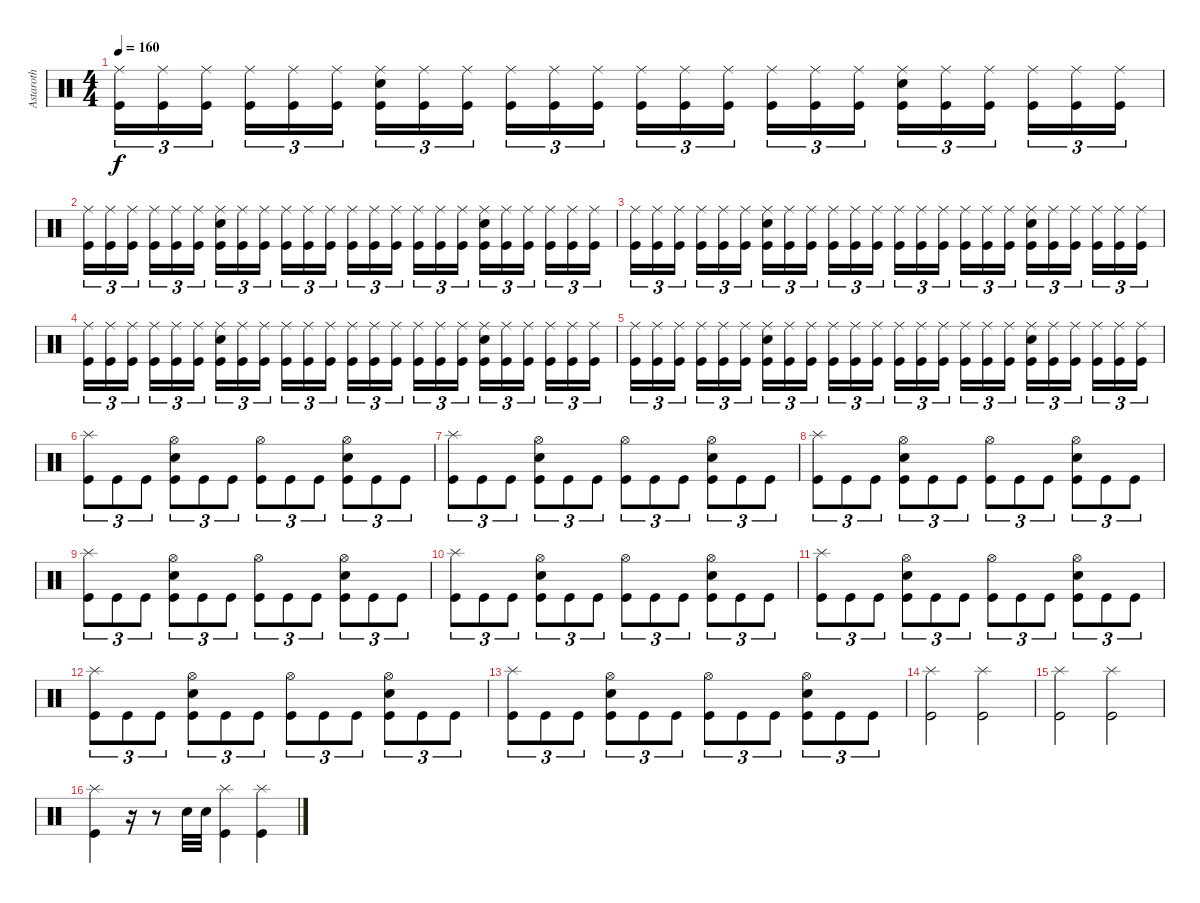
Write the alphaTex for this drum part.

\track ("Astaroth" "Astaroth") {instrument percussion}
\staff {score}
\articulation defaults
\ts (4 4)
\tempo 160
\clef neutral
\ks c
("Ride (middle)" "Kick (hit)").16{tu (3 2) dy f} ("Ride (middle)" "Kick (hit)").16{tu (3 2)} ("Ride (middle)" "Kick (hit)").16{tu (3 2) beam splitsecondary} ("Ride (middle)" "Kick (hit)").16{tu (3 2)} ("Ride (middle)" "Kick (hit)").16{tu (3 2)} ("Ride (middle)" "Kick (hit)").16{tu (3 2)} ("Ride (middle)" "Kick (hit)" "Electric Snare (hit)").16{tu (3 2)} ("Ride (middle)" "Kick (hit)").16{tu (3 2)} ("Ride (middle)" "Kick (hit)").16{tu (3 2) beam splitsecondary} ("Ride (middle)" "Kick (hit)").16{tu (3 2)} ("Ride (middle)" "Kick (hit)").16{tu (3 2)} ("Ride (middle)" "Kick (hit)").16{tu (3 2)} ("Ride (middle)" "Kick (hit)").16{tu (3 2)} ("Ride (middle)" "Kick (hit)").16{tu (3 2)} ("Ride (middle)" "Kick (hit)").16{tu (3 2) beam splitsecondary} ("Ride (middle)" "Kick (hit)").16{tu (3 2)} ("Ride (middle)" "Kick (hit)").16{tu (3 2)} ("Ride (middle)" "Kick (hit)").16{tu (3 2)} ("Ride (middle)" "Kick (hit)" "Electric Snare (hit)").16{tu (3 2)} ("Ride (middle)" "Kick (hit)").16{tu (3 2)} ("Ride (middle)" "Kick (hit)").16{tu (3 2) beam splitsecondary} ("Ride (middle)" "Kick (hit)").16{tu (3 2)} ("Ride (middle)" "Kick (hit)").16{tu (3 2)} ("Ride (middle)" "Kick (hit)").16{tu (3 2)} |
("Ride (middle)" "Kick (hit)").16{tu (3 2)} ("Ride (middle)" "Kick (hit)").16{tu (3 2)} ("Ride (middle)" "Kick (hit)").16{tu (3 2) beam splitsecondary} ("Ride (middle)" "Kick (hit)").16{tu (3 2)} ("Ride (middle)" "Kick (hit)").16{tu (3 2)} ("Ride (middle)" "Kick (hit)").16{tu (3 2)} ("Ride (middle)" "Kick (hit)" "Electric Snare (hit)").16{tu (3 2)} ("Ride (middle)" "Kick (hit)").16{tu (3 2)} ("Ride (middle)" "Kick (hit)").16{tu (3 2) beam splitsecondary} ("Ride (middle)" "Kick (hit)").16{tu (3 2)} ("Ride (middle)" "Kick (hit)").16{tu (3 2)} ("Ride (middle)" "Kick (hit)").16{tu (3 2)} ("Ride (middle)" "Kick (hit)").16{tu (3 2)} ("Ride (middle)" "Kick (hit)").16{tu (3 2)} ("Ride (middle)" "Kick (hit)").16{tu (3 2) beam splitsecondary} ("Ride (middle)" "Kick (hit)").16{tu (3 2)} ("Ride (middle)" "Kick (hit)").16{tu (3 2)} ("Ride (middle)" "Kick (hit)").16{tu (3 2)} ("Ride (middle)" "Kick (hit)" "Electric Snare (hit)").16{tu (3 2)} ("Ride (middle)" "Kick (hit)").16{tu (3 2)} ("Ride (middle)" "Kick (hit)").16{tu (3 2) beam splitsecondary} ("Ride (middle)" "Kick (hit)").16{tu (3 2)} ("Ride (middle)" "Kick (hit)").16{tu (3 2)} ("Ride (middle)" "Kick (hit)").16{tu (3 2)} |
("Ride (middle)" "Kick (hit)").16{tu (3 2)} ("Ride (middle)" "Kick (hit)").16{tu (3 2)} ("Ride (middle)" "Kick (hit)").16{tu (3 2) beam splitsecondary} ("Ride (middle)" "Kick (hit)").16{tu (3 2)} ("Ride (middle)" "Kick (hit)").16{tu (3 2)} ("Ride (middle)" "Kick (hit)").16{tu (3 2)} ("Ride (middle)" "Kick (hit)" "Electric Snare (hit)").16{tu (3 2)} ("Ride (middle)" "Kick (hit)").16{tu (3 2)} ("Ride (middle)" "Kick (hit)").16{tu (3 2) beam splitsecondary} ("Ride (middle)" "Kick (hit)").16{tu (3 2)} ("Ride (middle)" "Kick (hit)").16{tu (3 2)} ("Ride (middle)" "Kick (hit)").16{tu (3 2)} ("Ride (middle)" "Kick (hit)").16{tu (3 2)} ("Ride (middle)" "Kick (hit)").16{tu (3 2)} ("Ride (middle)" "Kick (hit)").16{tu (3 2) beam splitsecondary} ("Ride (middle)" "Kick (hit)").16{tu (3 2)} ("Ride (middle)" "Kick (hit)").16{tu (3 2)} ("Ride (middle)" "Kick (hit)").16{tu (3 2)} ("Ride (middle)" "Kick (hit)" "Electric Snare (hit)").16{tu (3 2)} ("Ride (middle)" "Kick (hit)").16{tu (3 2)} ("Ride (middle)" "Kick (hit)").16{tu (3 2) beam splitsecondary} ("Ride (middle)" "Kick (hit)").16{tu (3 2)} ("Ride (middle)" "Kick (hit)").16{tu (3 2)} ("Ride (middle)" "Kick (hit)").16{tu (3 2)} |
("Ride (middle)" "Kick (hit)").16{tu (3 2)} ("Ride (middle)" "Kick (hit)").16{tu (3 2)} ("Ride (middle)" "Kick (hit)").16{tu (3 2) beam splitsecondary} ("Ride (middle)" "Kick (hit)").16{tu (3 2)} ("Ride (middle)" "Kick (hit)").16{tu (3 2)} ("Ride (middle)" "Kick (hit)").16{tu (3 2)} ("Ride (middle)" "Kick (hit)" "Electric Snare (hit)").16{tu (3 2)} ("Ride (middle)" "Kick (hit)").16{tu (3 2)} ("Ride (middle)" "Kick (hit)").16{tu (3 2) beam splitsecondary} ("Ride (middle)" "Kick (hit)").16{tu (3 2)} ("Ride (middle)" "Kick (hit)").16{tu (3 2)} ("Ride (middle)" "Kick (hit)").16{tu (3 2)} ("Ride (middle)" "Kick (hit)").16{tu (3 2)} ("Ride (middle)" "Kick (hit)").16{tu (3 2)} ("Ride (middle)" "Kick (hit)").16{tu (3 2) beam splitsecondary} ("Ride (middle)" "Kick (hit)").16{tu (3 2)} ("Ride (middle)" "Kick (hit)").16{tu (3 2)} ("Ride (middle)" "Kick (hit)").16{tu (3 2)} ("Ride (middle)" "Kick (hit)" "Electric Snare (hit)").16{tu (3 2)} ("Ride (middle)" "Kick (hit)").16{tu (3 2)} ("Ride (middle)" "Kick (hit)").16{tu (3 2) beam splitsecondary} ("Ride (middle)" "Kick (hit)").16{tu (3 2)} ("Ride (middle)" "Kick (hit)").16{tu (3 2)} ("Ride (middle)" "Kick (hit)").16{tu (3 2)} |
("Ride (middle)" "Kick (hit)").16{tu (3 2)} ("Ride (middle)" "Kick (hit)").16{tu (3 2)} ("Ride (middle)" "Kick (hit)").16{tu (3 2) beam splitsecondary} ("Ride (middle)" "Kick (hit)").16{tu (3 2)} ("Ride (middle)" "Kick (hit)").16{tu (3 2)} ("Ride (middle)" "Kick (hit)").16{tu (3 2)} ("Ride (middle)" "Kick (hit)" "Electric Snare (hit)").16{tu (3 2)} ("Ride (middle)" "Kick (hit)").16{tu (3 2)} ("Ride (middle)" "Kick (hit)").16{tu (3 2) beam splitsecondary} ("Ride (middle)" "Kick (hit)").16{tu (3 2)} ("Ride (middle)" "Kick (hit)").16{tu (3 2)} ("Ride (middle)" "Kick (hit)").16{tu (3 2)} ("Ride (middle)" "Kick (hit)").16{tu (3 2)} ("Ride (middle)" "Kick (hit)").16{tu (3 2)} ("Ride (middle)" "Kick (hit)").16{tu (3 2) beam splitsecondary} ("Ride (middle)" "Kick (hit)").16{tu (3 2)} ("Ride (middle)" "Kick (hit)").16{tu (3 2)} ("Ride (middle)" "Kick (hit)").16{tu (3 2)} ("Ride (middle)" "Kick (hit)" "Electric Snare (hit)").16{tu (3 2)} ("Ride (middle)" "Kick (hit)").16{tu (3 2)} ("Ride (middle)" "Kick (hit)").16{tu (3 2) beam splitsecondary} ("Ride (middle)" "Kick (hit)").16{tu (3 2)} ("Ride (middle)" "Kick (hit)").16{tu (3 2)} ("Ride (middle)" "Kick (hit)").16{tu (3 2)} |
("Kick (hit)" "Splash (hit)").8{tu (3 2) volume 15} "Kick (hit)".8{tu (3 2)} "Kick (hit)".8{tu (3 2)} ("Hi-Hat (open)" "Kick (hit)" "Electric Snare (hit)").8{tu (3 2)} "Kick (hit)".8{tu (3 2)} "Kick (hit)".8{tu (3 2)} ("Hi-Hat (open)" "Kick (hit)").8{tu (3 2)} "Kick (hit)".8{tu (3 2)} "Kick (hit)".8{tu (3 2)} ("Hi-Hat (open)" "Kick (hit)" "Electric Snare (hit)").8{tu (3 2)} "Kick (hit)".8{tu (3 2)} "Kick (hit)".8{tu (3 2)} |
("Kick (hit)" "Splash (hit)").8{tu (3 2)} "Kick (hit)".8{tu (3 2)} "Kick (hit)".8{tu (3 2)} ("Hi-Hat (open)" "Kick (hit)" "Electric Snare (hit)").8{tu (3 2)} "Kick (hit)".8{tu (3 2)} "Kick (hit)".8{tu (3 2)} ("Hi-Hat (open)" "Kick (hit)").8{tu (3 2)} "Kick (hit)".8{tu (3 2)} "Kick (hit)".8{tu (3 2)} ("Hi-Hat (open)" "Kick (hit)" "Electric Snare (hit)").8{tu (3 2)} "Kick (hit)".8{tu (3 2)} "Kick (hit)".8{tu (3 2)} |
("Kick (hit)" "Splash (hit)").8{tu (3 2)} "Kick (hit)".8{tu (3 2)} "Kick (hit)".8{tu (3 2)} ("Hi-Hat (open)" "Kick (hit)" "Electric Snare (hit)").8{tu (3 2)} "Kick (hit)".8{tu (3 2)} "Kick (hit)".8{tu (3 2)} ("Hi-Hat (open)" "Kick (hit)").8{tu (3 2)} "Kick (hit)".8{tu (3 2)} "Kick (hit)".8{tu (3 2)} ("Hi-Hat (open)" "Kick (hit)" "Electric Snare (hit)").8{tu (3 2)} "Kick (hit)".8{tu (3 2)} "Kick (hit)".8{tu (3 2)} |
("Kick (hit)" "Splash (hit)").8{tu (3 2)} "Kick (hit)".8{tu (3 2)} "Kick (hit)".8{tu (3 2)} ("Hi-Hat (open)" "Kick (hit)" "Electric Snare (hit)").8{tu (3 2)} "Kick (hit)".8{tu (3 2)} "Kick (hit)".8{tu (3 2)} ("Hi-Hat (open)" "Kick (hit)").8{tu (3 2)} "Kick (hit)".8{tu (3 2)} "Kick (hit)".8{tu (3 2)} ("Hi-Hat (open)" "Kick (hit)" "Electric Snare (hit)").8{tu (3 2)} "Kick (hit)".8{tu (3 2)} "Kick (hit)".8{tu (3 2)} |
("Kick (hit)" "Splash (hit)").8{tu (3 2)} "Kick (hit)".8{tu (3 2)} "Kick (hit)".8{tu (3 2)} ("Hi-Hat (open)" "Kick (hit)" "Electric Snare (hit)").8{tu (3 2)} "Kick (hit)".8{tu (3 2)} "Kick (hit)".8{tu (3 2)} ("Hi-Hat (open)" "Kick (hit)").8{tu (3 2)} "Kick (hit)".8{tu (3 2)} "Kick (hit)".8{tu (3 2)} ("Hi-Hat (open)" "Kick (hit)" "Electric Snare (hit)").8{tu (3 2)} "Kick (hit)".8{tu (3 2)} "Kick (hit)".8{tu (3 2)} |
("Kick (hit)" "Splash (hit)").8{tu (3 2)} "Kick (hit)".8{tu (3 2)} "Kick (hit)".8{tu (3 2)} ("Hi-Hat (open)" "Kick (hit)" "Electric Snare (hit)").8{tu (3 2)} "Kick (hit)".8{tu (3 2)} "Kick (hit)".8{tu (3 2)} ("Hi-Hat (open)" "Kick (hit)").8{tu (3 2)} "Kick (hit)".8{tu (3 2)} "Kick (hit)".8{tu (3 2)} ("Hi-Hat (open)" "Kick (hit)" "Electric Snare (hit)").8{tu (3 2)} "Kick (hit)".8{tu (3 2)} "Kick (hit)".8{tu (3 2)} |
("Kick (hit)" "Splash (hit)").8{tu (3 2)} "Kick (hit)".8{tu (3 2)} "Kick (hit)".8{tu (3 2)} ("Hi-Hat (open)" "Kick (hit)" "Electric Snare (hit)").8{tu (3 2)} "Kick (hit)".8{tu (3 2)} "Kick (hit)".8{tu (3 2)} ("Hi-Hat (open)" "Kick (hit)").8{tu (3 2)} "Kick (hit)".8{tu (3 2)} "Kick (hit)".8{tu (3 2)} ("Hi-Hat (open)" "Kick (hit)" "Electric Snare (hit)").8{tu (3 2)} "Kick (hit)".8{tu (3 2)} "Kick (hit)".8{tu (3 2)} |
("Kick (hit)" "Splash (hit)").8{tu (3 2)} "Kick (hit)".8{tu (3 2)} "Kick (hit)".8{tu (3 2)} ("Hi-Hat (open)" "Kick (hit)" "Electric Snare (hit)").8{tu (3 2)} "Kick (hit)".8{tu (3 2)} "Kick (hit)".8{tu (3 2)} ("Hi-Hat (open)" "Kick (hit)").8{tu (3 2)} "Kick (hit)".8{tu (3 2)} "Kick (hit)".8{tu (3 2)} ("Hi-Hat (open)" "Kick (hit)" "Electric Snare (hit)").8{tu (3 2)} "Kick (hit)".8{tu (3 2)} "Kick (hit)".8{tu (3 2)} |
("Kick (hit)" "Splash (hit)").2 ("Kick (hit)" "Splash (hit)").2 |
("Kick (hit)" "Splash (hit)").2 ("Kick (hit)" "Splash (hit)").2 |
("Kick (hit)" "Splash (hit)").4 r.16 r.8 "Electric Snare (hit)".32 "Electric Snare (hit)".32 ("Kick (hit)" "Splash (hit)").4 ("Kick (hit)" "Splash (hit)").4
